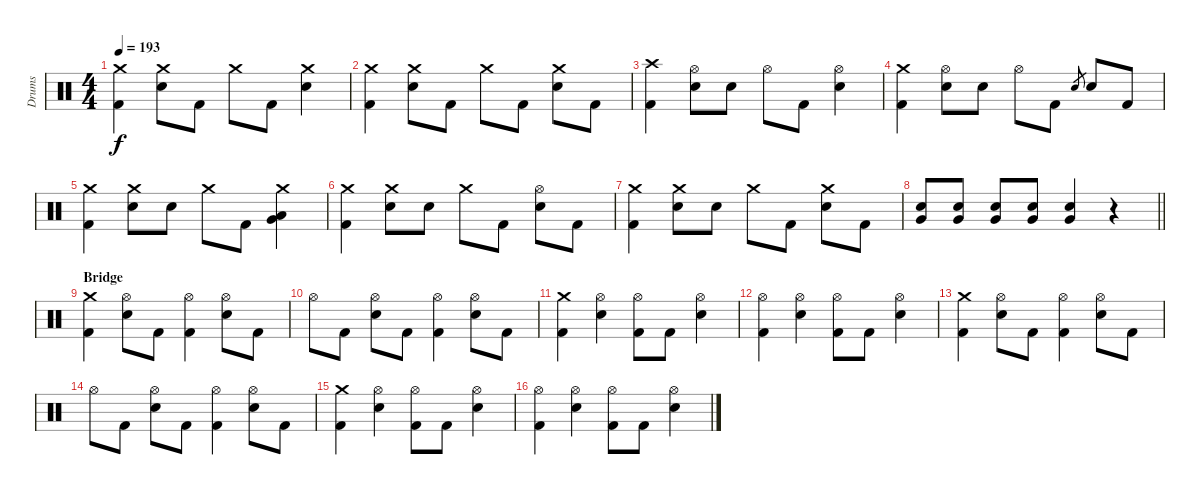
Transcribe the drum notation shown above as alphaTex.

\track ("Drums" "Drums") {instrument percussion}
\staff {score}
\articulation defaults
\ts (4 4)
\tempo 193
\clef neutral
\ks c
("Crash medium (hit)" "Kick (hit) 2").4{dy f} ("Crash medium (hit)" "Electric Snare (hit)").8 "Kick (hit) 2".8 "Crash medium (hit)".8 "Kick (hit) 2".8 ("Crash medium (hit)" "Electric Snare (hit)").4 |
("Crash medium (hit)" "Kick (hit) 2").4 ("Crash medium (hit)" "Electric Snare (hit)").8 "Kick (hit) 2".8 "Crash medium (hit)".8 "Kick (hit) 2".8 ("Crash medium (hit)" "Electric Snare (hit)").8 "Kick (hit) 2".8 |
("Crash high (hit)" "Kick (hit) 2").4 ("Hi-Hat (open)" "Electric Snare (hit)").8 "Electric Snare (hit)".8 "Hi-Hat (open)".8 "Kick (hit) 2".8 ("Hi-Hat (open)" "Electric Snare (hit)").4 |
("Crash medium (hit)" "Kick (hit) 2").4 ("Hi-Hat (open)" "Electric Snare (hit)").8 "Electric Snare (hit)".8 "Hi-Hat (open)".8 "Kick (hit) 2".8 "Electric Snare (hit)".8{gr} "Electric Snare (hit)".8 "Kick (hit) 2".8 |
("Crash medium (hit)" "Kick (hit) 2").4 ("Crash medium (hit)" "Electric Snare (hit)").8 "Electric Snare (hit)".8 "Crash medium (hit)".8 "Kick (hit) 2".8 ("Crash medium (hit)" "Very Low Tom (hit)" "Low Tom (hit)").4 |
("Crash medium (hit)" "Kick (hit) 2").4 ("Crash medium (hit)" "Electric Snare (hit)").8 "Electric Snare (hit)".8 "Crash medium (hit)".8 "Kick (hit) 2".8 ("Hi-Hat (open)" "Electric Snare (hit)").8 "Kick (hit) 2".8 |
("Crash medium (hit)" "Kick (hit) 2").4 ("Crash medium (hit)" "Electric Snare (hit)").8 "Electric Snare (hit)".8 "Crash medium (hit)".8 "Kick (hit) 2".8 ("Crash medium (hit)" "Electric Snare (hit)").8 "Kick (hit) 2".8 |
\barLineRight lightlight
("Very Low Tom (hit)" "Electric Snare (hit)").8 ("Very Low Tom (hit)" "Electric Snare (hit)").8 ("Very Low Tom (hit)" "Electric Snare (hit)").8 ("Very Low Tom (hit)" "Electric Snare (hit)").8 ("Very Low Tom (hit)" "Electric Snare (hit)").4 r.4 |
\section ("" "Bridge")
("Crash medium (hit)" "Kick (hit) 2").4 ("Hi-Hat (open)" "Electric Snare (hit)").8 "Kick (hit) 2".8 ("Hi-Hat (open)" "Kick (hit) 2").4 ("Hi-Hat (open)" "Electric Snare (hit)").8 "Kick (hit) 2".8 |
"Hi-Hat (open)".8 "Kick (hit) 2".8 ("Hi-Hat (open)" "Electric Snare (hit)").8 "Kick (hit) 2".8 ("Hi-Hat (open)" "Kick (hit) 2").4 ("Hi-Hat (open)" "Electric Snare (hit)").8 "Kick (hit) 2".8 |
("Crash medium (hit)" "Kick (hit) 2").4 ("Hi-Hat (open)" "Electric Snare (hit)").4 ("Hi-Hat (open)" "Kick (hit) 2").8 "Kick (hit) 2".8 ("Hi-Hat (open)" "Electric Snare (hit)").4 |
("Hi-Hat (open)" "Kick (hit) 2").4 ("Hi-Hat (open)" "Electric Snare (hit)").4 ("Hi-Hat (open)" "Kick (hit) 2").8 "Kick (hit) 2".8 ("Hi-Hat (open)" "Electric Snare (hit)").4 |
("Crash medium (hit)" "Kick (hit) 2").4 ("Hi-Hat (open)" "Electric Snare (hit)").8 "Kick (hit) 2".8 ("Hi-Hat (open)" "Kick (hit) 2").4 ("Hi-Hat (open)" "Electric Snare (hit)").8 "Kick (hit) 2".8 |
"Hi-Hat (open)".8 "Kick (hit) 2".8 ("Hi-Hat (open)" "Electric Snare (hit)").8 "Kick (hit) 2".8 ("Hi-Hat (open)" "Kick (hit) 2").4 ("Hi-Hat (open)" "Electric Snare (hit)").8 "Kick (hit) 2".8 |
("Crash medium (hit)" "Kick (hit) 2").4 ("Hi-Hat (open)" "Electric Snare (hit)").4 ("Hi-Hat (open)" "Kick (hit) 2").8 "Kick (hit) 2".8 ("Hi-Hat (open)" "Electric Snare (hit)").4 |
("Hi-Hat (open)" "Kick (hit) 2").4 ("Hi-Hat (open)" "Electric Snare (hit)").4 ("Hi-Hat (open)" "Kick (hit) 2").8 "Kick (hit) 2".8 ("Hi-Hat (open)" "Electric Snare (hit)").4
